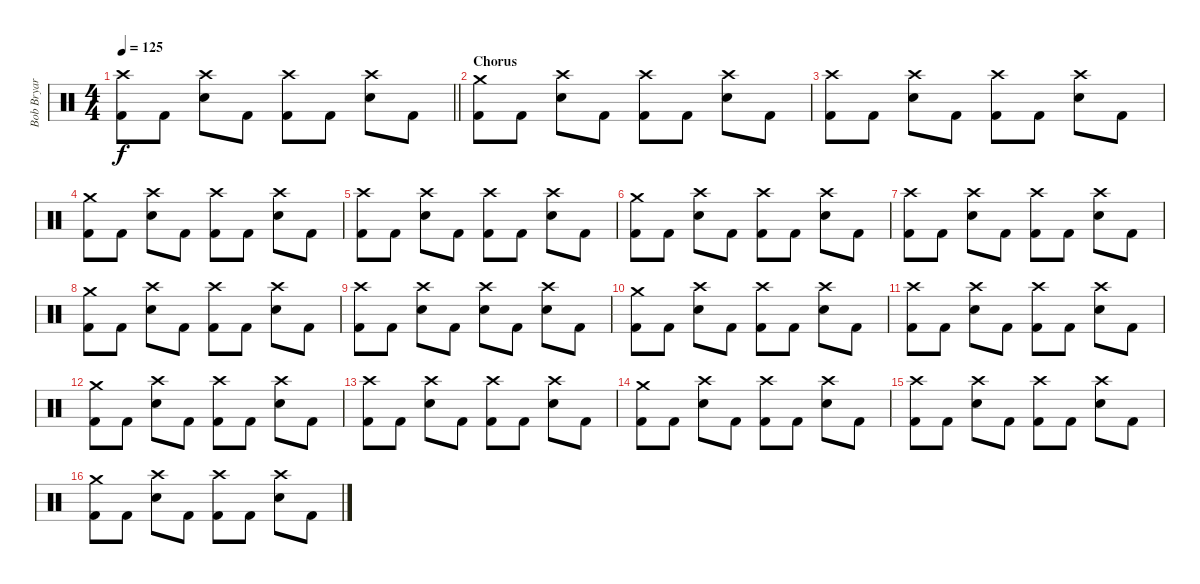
\track ("Bob Bryar" "Bob Bryar") {instrument percussion}
\staff {score}
\articulation defaults
\ts (4 4)
\tempo 125
\clef neutral
\barLineRight lightlight
\ks c
("Crash high (hit)" "Kick (hit) 2").8{dy f} "Kick (hit) 2".8 ("Crash high (hit)" "Electric Snare (hit)").8 "Kick (hit) 2".8 ("Crash high (hit)" "Kick (hit) 2").8 "Kick (hit) 2".8 ("Crash high (hit)" "Electric Snare (hit)").8 "Kick (hit) 2".8 |
\section ("" "Chorus")
("Crash medium (hit)" "Kick (hit) 2").8 "Kick (hit) 2".8 ("Crash high (hit)" "Electric Snare (hit)").8 "Kick (hit) 2".8 ("Crash high (hit)" "Kick (hit) 2").8 "Kick (hit) 2".8 ("Crash high (hit)" "Electric Snare (hit)").8 "Kick (hit) 2".8 |
("Crash high (hit)" "Kick (hit) 2").8 "Kick (hit) 2".8 ("Crash high (hit)" "Electric Snare (hit)").8 "Kick (hit) 2".8 ("Crash high (hit)" "Kick (hit) 2").8 "Kick (hit) 2".8 ("Crash high (hit)" "Electric Snare (hit)").8 "Kick (hit) 2".8 |
("Crash medium (hit)" "Kick (hit) 2").8 "Kick (hit) 2".8 ("Crash high (hit)" "Electric Snare (hit)").8 "Kick (hit) 2".8 ("Crash high (hit)" "Kick (hit) 2").8 "Kick (hit) 2".8 ("Crash high (hit)" "Electric Snare (hit)").8 "Kick (hit) 2".8 |
("Crash high (hit)" "Kick (hit) 2").8 "Kick (hit) 2".8 ("Crash high (hit)" "Electric Snare (hit)").8 "Kick (hit) 2".8 ("Crash high (hit)" "Kick (hit) 2").8 "Kick (hit) 2".8 ("Crash high (hit)" "Electric Snare (hit)").8 "Kick (hit) 2".8 |
("Crash medium (hit)" "Kick (hit) 2").8 "Kick (hit) 2".8 ("Crash high (hit)" "Electric Snare (hit)").8 "Kick (hit) 2".8 ("Crash high (hit)" "Kick (hit) 2").8 "Kick (hit) 2".8 ("Crash high (hit)" "Electric Snare (hit)").8 "Kick (hit) 2".8 |
("Crash high (hit)" "Kick (hit) 2").8 "Kick (hit) 2".8 ("Crash high (hit)" "Electric Snare (hit)").8 "Kick (hit) 2".8 ("Crash high (hit)" "Kick (hit) 2").8 "Kick (hit) 2".8 ("Crash high (hit)" "Electric Snare (hit)").8 "Kick (hit) 2".8 |
("Crash medium (hit)" "Kick (hit) 2").8 "Kick (hit) 2".8 ("Crash high (hit)" "Electric Snare (hit)").8 "Kick (hit) 2".8 ("Crash high (hit)" "Kick (hit) 2").8 "Kick (hit) 2".8 ("Crash high (hit)" "Electric Snare (hit)").8 "Kick (hit) 2".8 |
("Crash high (hit)" "Kick (hit) 2").8 "Kick (hit) 2".8 ("Crash high (hit)" "Electric Snare (hit)").8 "Kick (hit) 2".8 ("Crash high (hit)" "Electric Snare (hit)").8 "Kick (hit) 2".8 ("Crash high (hit)" "Electric Snare (hit)").8 "Kick (hit) 2".8 |
("Crash medium (hit)" "Kick (hit) 2").8 "Kick (hit) 2".8 ("Crash high (hit)" "Electric Snare (hit)").8 "Kick (hit) 2".8 ("Crash high (hit)" "Kick (hit) 2").8 "Kick (hit) 2".8 ("Crash high (hit)" "Electric Snare (hit)").8 "Kick (hit) 2".8 |
("Crash high (hit)" "Kick (hit) 2").8 "Kick (hit) 2".8 ("Crash high (hit)" "Electric Snare (hit)").8 "Kick (hit) 2".8 ("Crash high (hit)" "Kick (hit) 2").8 "Kick (hit) 2".8 ("Crash high (hit)" "Electric Snare (hit)").8 "Kick (hit) 2".8 |
("Crash medium (hit)" "Kick (hit) 2").8 "Kick (hit) 2".8 ("Crash high (hit)" "Electric Snare (hit)").8 "Kick (hit) 2".8 ("Crash high (hit)" "Kick (hit) 2").8 "Kick (hit) 2".8 ("Crash high (hit)" "Electric Snare (hit)").8 "Kick (hit) 2".8 |
("Crash high (hit)" "Kick (hit) 2").8 "Kick (hit) 2".8 ("Crash high (hit)" "Electric Snare (hit)").8 "Kick (hit) 2".8 ("Crash high (hit)" "Kick (hit) 2").8 "Kick (hit) 2".8 ("Crash high (hit)" "Electric Snare (hit)").8 "Kick (hit) 2".8 |
("Crash medium (hit)" "Kick (hit) 2").8 "Kick (hit) 2".8 ("Crash high (hit)" "Electric Snare (hit)").8 "Kick (hit) 2".8 ("Crash high (hit)" "Kick (hit) 2").8 "Kick (hit) 2".8 ("Crash high (hit)" "Electric Snare (hit)").8 "Kick (hit) 2".8 |
("Crash high (hit)" "Kick (hit) 2").8 "Kick (hit) 2".8 ("Crash high (hit)" "Electric Snare (hit)").8 "Kick (hit) 2".8 ("Crash high (hit)" "Kick (hit) 2").8 "Kick (hit) 2".8 ("Crash high (hit)" "Electric Snare (hit)").8 "Kick (hit) 2".8 |
("Crash medium (hit)" "Kick (hit) 2").8 "Kick (hit) 2".8 ("Crash high (hit)" "Electric Snare (hit)").8 "Kick (hit) 2".8 ("Crash high (hit)" "Kick (hit) 2").8 "Kick (hit) 2".8 ("Crash high (hit)" "Electric Snare (hit)").8 "Kick (hit) 2".8
